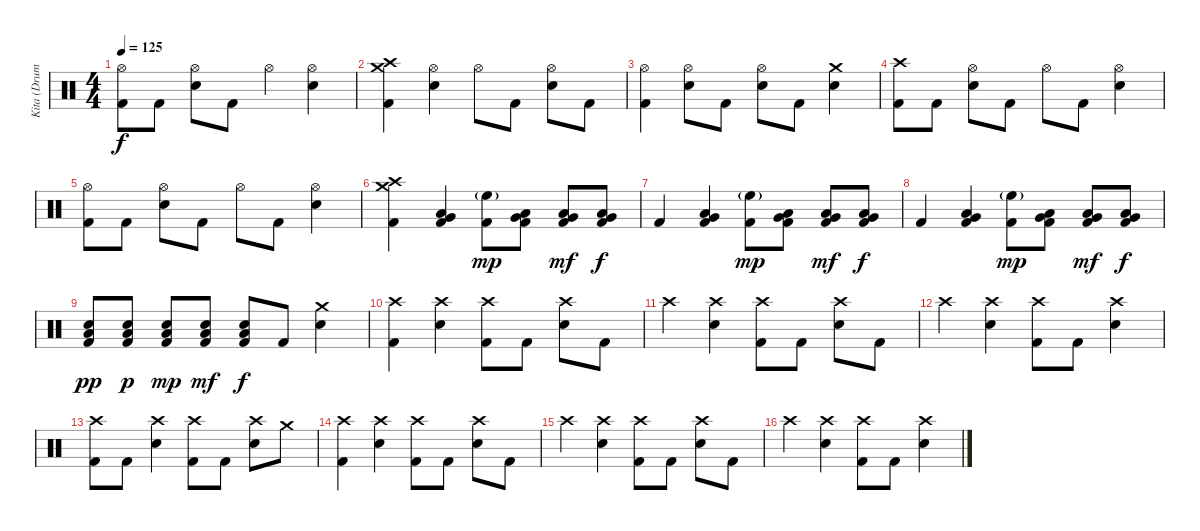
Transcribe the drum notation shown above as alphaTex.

\track ("Kita (Drums)" "Kita (Drum") {instrument percussion}
\staff {score}
\articulation defaults
\ts (4 4)
\tempo 125
\clef neutral
\ks c
("Hi-Hat (open)" "Kick (hit) 2").8{dy f} "Kick (hit) 2".8 ("Hi-Hat (open)" "Electric Snare (hit)").8 "Kick (hit) 2".8 "Hi-Hat (open)".4 ("Hi-Hat (open)" "Electric Snare (hit)").4 |
("Crash medium (hit)" "Crash high (hit)" "Kick (hit) 2").4 ("Hi-Hat (open)" "Electric Snare (hit)").4 "Hi-Hat (open)".8 "Kick (hit) 2".8 ("Hi-Hat (open)" "Electric Snare (hit)").8 "Kick (hit) 2".8 |
("Hi-Hat (open)" "Kick (hit) 2").4 ("Hi-Hat (open)" "Electric Snare (hit)").8 "Kick (hit) 2".8 ("Hi-Hat (open)" "Electric Snare (hit)").8 "Kick (hit) 2".8 ("Crash medium (hit)" "Electric Snare (hit)").4 |
("Crash high (hit)" "Kick (hit) 2").8 "Kick (hit) 2".8 ("Hi-Hat (open)" "Electric Snare (hit)").8 "Kick (hit) 2".8 "Hi-Hat (open)".8 "Kick (hit) 2".8 ("Hi-Hat (open)" "Electric Snare (hit)").4 |
("Hi-Hat (open)" "Kick (hit) 2").8 "Kick (hit) 2".8 ("Hi-Hat (open)" "Electric Snare (hit)").8 "Kick (hit) 2".8 "Hi-Hat (open)".8 "Kick (hit) 2".8 ("Hi-Hat (open)" "Electric Snare (hit)").4 |
("Crash medium (hit)" "Crash high (hit)" "Kick (hit) 2").4 ("Very Low Tom (hit)" "Low Tom (hit)" "Kick (hit) 2").4 ("High Floor Tom (hit)"{g} "Kick (hit) 2").8{dy mp} ("Very Low Tom (hit)" "Low Tom (hit)" "Kick (hit) 2").8 ("Very Low Tom (hit)" "Low Tom (hit)" "Kick (hit) 2").8{dy mf} ("Low Floor Tom (hit)" "Very Low Tom (hit)" "Kick (hit) 2").8{dy f} |
"Kick (hit) 2".4 ("Very Low Tom (hit)" "Low Tom (hit)" "Kick (hit) 2").4 ("High Floor Tom (hit)"{g} "Kick (hit) 2").8{dy mp} ("Very Low Tom (hit)" "Low Tom (hit)" "Kick (hit) 2").8 ("Very Low Tom (hit)" "Low Tom (hit)" "Kick (hit) 2").8{dy mf} ("Low Floor Tom (hit)" "Very Low Tom (hit)" "Kick (hit) 2").8{dy f} |
"Kick (hit) 2".4 ("Very Low Tom (hit)" "Low Tom (hit)" "Kick (hit) 2").4 ("High Floor Tom (hit)"{g} "Kick (hit) 2").8{dy mp} ("Very Low Tom (hit)" "Low Tom (hit)" "Kick (hit) 2").8 ("Very Low Tom (hit)" "Low Tom (hit)" "Kick (hit) 2").8{dy mf} ("Low Floor Tom (hit)" "Very Low Tom (hit)" "Kick (hit) 2").8{dy f} |
("Low Floor Tom (hit)" "Electric Snare (hit)" "Kick (hit) 2").8{dy pp} ("Low Floor Tom (hit)" "Electric Snare (hit)" "Kick (hit) 2").8{dy p} ("Low Floor Tom (hit)" "Electric Snare (hit)" "Kick (hit) 2").8{dy mp} ("Low Floor Tom (hit)" "Electric Snare (hit)" "Kick (hit) 2").8{dy mf} ("Low Floor Tom (hit)" "Electric Snare (hit)" "Kick (hit) 2").8{dy f} "Kick (hit) 2".8 ("Crash medium (hit)" "Electric Snare (hit)").4 |
("Crash high (hit)" "Kick (hit) 2").4 ("Crash high (hit)" "Electric Snare (hit)").4 ("Crash high (hit)" "Kick (hit) 2").8 "Kick (hit) 2".8 ("Crash high (hit)" "Electric Snare (hit)").8 "Kick (hit) 2".8 |
"Crash high (hit)".4 ("Crash high (hit)" "Electric Snare (hit)").4 ("Crash high (hit)" "Kick (hit) 2").8 "Kick (hit) 2".8 ("Crash high (hit)" "Electric Snare (hit)").8 "Kick (hit) 2".8 |
"Crash high (hit)".4 ("Crash high (hit)" "Electric Snare (hit)").4 ("Crash high (hit)" "Kick (hit) 2").8 "Kick (hit) 2".8 ("Crash high (hit)" "Electric Snare (hit)").4 |
("Crash high (hit)" "Kick (hit) 2").8 "Kick (hit) 2".8 ("Crash high (hit)" "Electric Snare (hit)").4 ("Crash high (hit)" "Kick (hit) 2").8 "Kick (hit) 2".8 ("Crash high (hit)" "Electric Snare (hit)").8 "Crash medium (hit)".8 |
("Crash high (hit)" "Kick (hit) 2").4 ("Crash high (hit)" "Electric Snare (hit)").4 ("Crash high (hit)" "Kick (hit) 2").8 "Kick (hit) 2".8 ("Crash high (hit)" "Electric Snare (hit)").8 "Kick (hit) 2".8 |
"Crash high (hit)".4 ("Crash high (hit)" "Electric Snare (hit)").4 ("Crash high (hit)" "Kick (hit) 2").8 "Kick (hit) 2".8 ("Crash high (hit)" "Electric Snare (hit)").8 "Kick (hit) 2".8 |
"Crash high (hit)".4 ("Crash high (hit)" "Electric Snare (hit)").4 ("Crash high (hit)" "Kick (hit) 2").8 "Kick (hit) 2".8 ("Crash high (hit)" "Electric Snare (hit)").4
